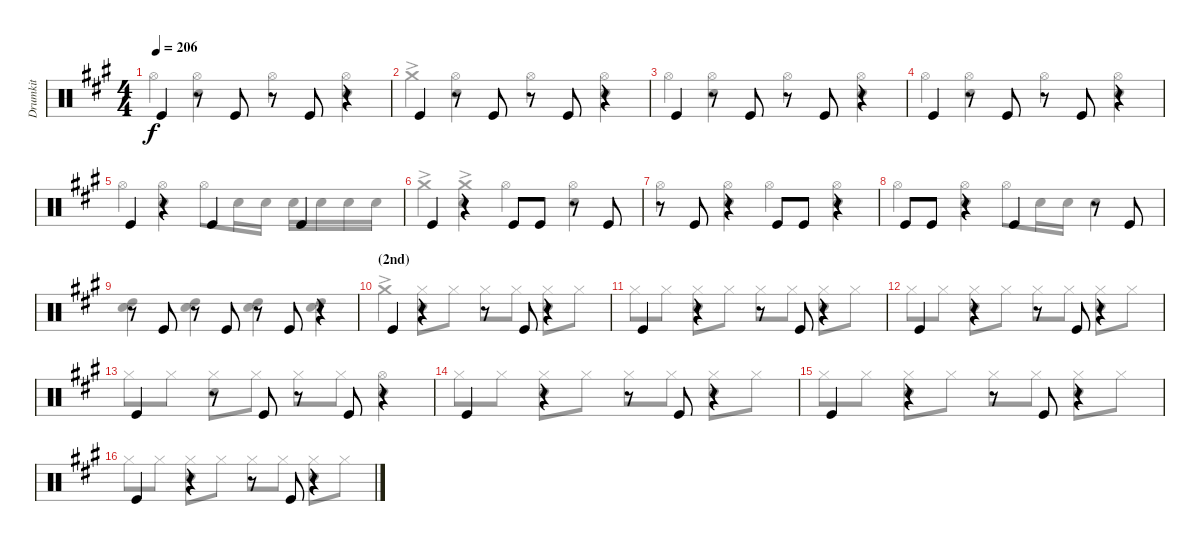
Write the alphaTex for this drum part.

\track ("Drumkit" "Drumkit") {instrument percussion}
\staff {score}
\articulation defaults
\voice
\ts (4 4)
\tempo 206
\clef neutral
\ks a "Kick (hit)".4{dy f}
r.8 "Kick (hit)".8 r.8 "Kick (hit)".8 r.4 |
"Kick (hit)".4 r.8 "Kick (hit)".8 r.8 "Kick (hit)".8 r.4 |
"Kick (hit)".4 r.8 "Kick (hit)".8 r.8 "Kick (hit)".8 r.4 |
"Kick (hit)".4 r.8 "Kick (hit)".8 r.8 "Kick (hit)".8 r.4 |
"Kick (hit)".4 r.4 "Kick (hit)".4 "Kick (hit)".4 |
"Kick (hit)".4 r.4 "Kick (hit)".8 "Kick (hit)".8 r.8 "Kick (hit)".8 |
r.8 "Kick (hit)".8 r.4 "Kick (hit)".8 "Kick (hit)".8 r.4 |
"Kick (hit)".8 "Kick (hit)".8 r.4 "Kick (hit)".4 r.8 "Kick (hit)".8 |
r.8 "Kick (hit)".8 r.8 "Kick (hit)".8 r.8 "Kick (hit)".8 r.4 |
\section ("" "(2nd)")
"Kick (hit)".4 r.4 r.8 "Kick (hit)".8 r.4 |
"Kick (hit)".4 r.4 r.8 "Kick (hit)".8 r.4 |
"Kick (hit)".4 r.4 r.8 "Kick (hit)".8 r.4 |
"Kick (hit)".4 r.8 "Kick (hit)".8 r.8 "Kick (hit)".8 r.4 |
"Kick (hit)".4 r.4 r.8 "Kick (hit)".8 r.4 |
"Kick (hit)".4 r.4 r.8 "Kick (hit)".8 r.4 |
"Kick (hit)".4 r.4 r.8 "Kick (hit)".8 r.4
\voice
\clef neutral
\ottava regular
\simile none
\ks a "Hi-Hat (open)".4{dy f}
("Hi-Hat (open)" "Snare (hit) 2").4 "Hi-Hat (open)".4 ("Hi-Hat (open)" "Snare (hit) 2").4 |
"Crash medium (hit)"{ac}.4 ("Hi-Hat (open)" "Snare (hit) 2").4 "Hi-Hat (open)".4 ("Hi-Hat (open)" "Snare (hit) 2").4 |
"Hi-Hat (open)".4 ("Hi-Hat (open)" "Snare (hit) 2").4 "Hi-Hat (open)".4 ("Hi-Hat (open)" "Snare (hit) 2").4 |
"Hi-Hat (open)".4 ("Hi-Hat (open)" "Snare (hit) 2").4 "Hi-Hat (open)".4 ("Hi-Hat (open)" "Snare (hit) 2").4 |
"Hi-Hat (open)".4 ("Snare (hit) 2" "Hi-Hat (open)").4 "Hi-Hat (open)".8 "Snare (hit) 2".16 "Snare (hit) 2".16 "Snare (hit) 2".16 "Snare (hit) 2".16 "Snare (hit) 2".16 "Snare (hit) 2".16 |
"Crash medium (hit)"{ac}.4 ("Crash medium (hit)"{ac} "Snare (hit) 2").4 "Hi-Hat (open)".4 ("Hi-Hat (open)" "Snare (hit) 2").4 |
"Hi-Hat (open)".4 ("Hi-Hat (open)" "Snare (hit) 2").4 "Hi-Hat (open)".4 ("Hi-Hat (open)" "Snare (hit) 2").4 |
"Hi-Hat (open)".4 ("Snare (hit) 2" "Hi-Hat (open)").4 "Hi-Hat (open)".8 "Snare (hit) 2".16 "Snare (hit) 2".16 "Snare (hit) 2".4 |
("Snare (hit) 2" "High Tom (hit)").4 ("High Tom (hit)" "Snare (hit) 2").4 ("Snare (hit) 2" "High Tom (hit)").4 ("High Tom (hit)" "Snare (hit) 2").4 |
"Crash medium (hit)"{ac}.4 ("Hi-Hat (closed)" "Snare (hit) 2").8 "Hi-Hat (closed)".8 "Hi-Hat (closed)".8 "Hi-Hat (closed)".8 ("Hi-Hat (closed)" "Snare (hit) 2").8 "Hi-Hat (closed)".8 |
"Hi-Hat (closed)".8 "Hi-Hat (closed)".8 ("Hi-Hat (closed)" "Snare (hit) 2").8 "Hi-Hat (closed)".8 "Hi-Hat (closed)".8 "Hi-Hat (closed)".8 ("Hi-Hat (closed)" "Snare (hit) 2").8 "Hi-Hat (closed)".8 |
"Hi-Hat (closed)".8 "Hi-Hat (closed)".8 ("Hi-Hat (closed)" "Snare (hit) 2").8 "Hi-Hat (closed)".8 "Hi-Hat (closed)".8 "Hi-Hat (closed)".8 ("Hi-Hat (closed)" "Snare (hit) 2").8 "Hi-Hat (closed)".8 |
"Hi-Hat (closed)".8 "Hi-Hat (closed)".8 ("Hi-Hat (closed)" "Snare (hit) 2").8 "Hi-Hat (closed)".8 "Hi-Hat (closed)".8 "Hi-Hat (closed)".8 ("Hi-Hat (open)" "Snare (hit) 2").4 |
"Hi-Hat (closed)".8 "Hi-Hat (closed)".8 ("Hi-Hat (closed)" "Snare (hit) 2").8 "Hi-Hat (closed)".8 "Hi-Hat (closed)".8 "Hi-Hat (closed)".8 ("Hi-Hat (closed)" "Snare (hit) 2").8 "Hi-Hat (closed)".8 |
"Hi-Hat (closed)".8 "Hi-Hat (closed)".8 ("Hi-Hat (closed)" "Snare (hit) 2").8 "Hi-Hat (closed)".8 "Hi-Hat (closed)".8 "Hi-Hat (closed)".8 ("Snare (hit) 2" "Hi-Hat (closed)").8 "Hi-Hat (closed)".8 |
"Hi-Hat (closed)".8 "Hi-Hat (closed)".8 ("Hi-Hat (closed)" "Snare (hit) 2").8 "Hi-Hat (closed)".8 "Hi-Hat (closed)".8 "Hi-Hat (closed)".8 ("Hi-Hat (closed)" "Snare (hit) 2").8 "Hi-Hat (closed)".8
